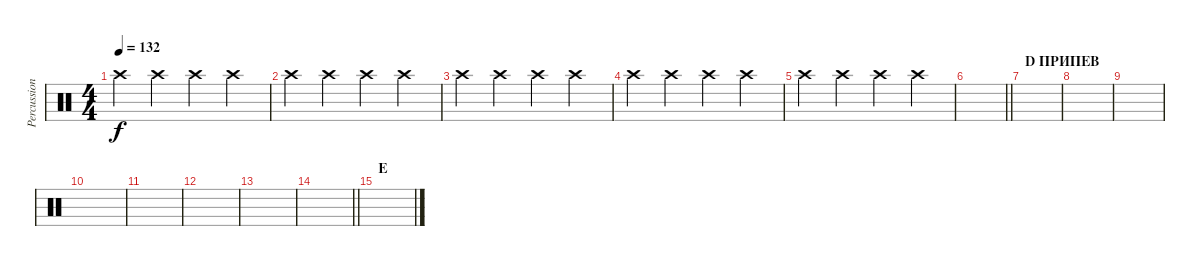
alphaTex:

\track ("Percussions" "Percussion") {instrument percussion}
\staff {score}
\articulation defaults
\ts (4 4)
\tempo 132
\clef neutral
\ks c "Crash high (hit)".4{dy f} "Crash high (hit)".4 "Crash high (hit)".4 "Crash high (hit)".4
|
"Crash high (hit)".4 "Crash high (hit)".4 "Crash high (hit)".4 "Crash high (hit)".4 |
"Crash high (hit)".4 "Crash high (hit)".4 "Crash high (hit)".4 "Crash high (hit)".4 |
"Crash high (hit)".4 "Crash high (hit)".4 "Crash high (hit)".4 "Crash high (hit)".4 |
"Crash high (hit)".4 "Crash high (hit)".4 "Crash high (hit)".4 "Crash high (hit)".4 |
\barLineRight lightlight
|
\section ("" "D ПРИПЕВ")
|
|
|
|
|
|
|
\barLineRight lightlight
|
\section ("" "E")
